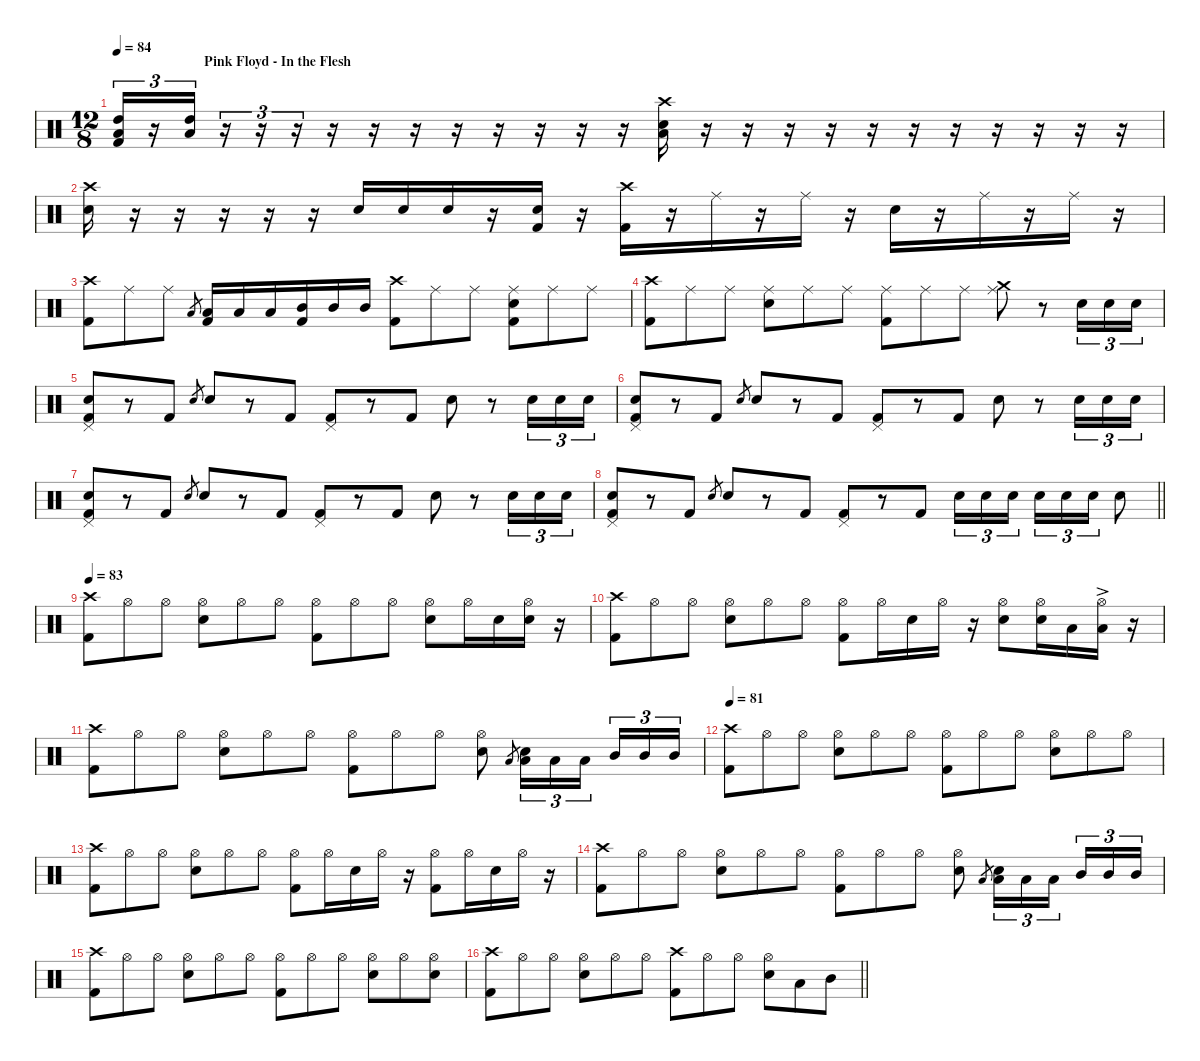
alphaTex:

\defaultSystemsLayout 4
\hideDynamics
\bracketExtendMode nobrackets
\singleTrackTrackNamePolicy hidden
\multiTrackTrackNamePolicy hidden
\firstSystemTrackNameMode fullname
\otherSystemsTrackNameOrientation horizontal
\track ("DRUMS" "drm.") {instrument percussion}
\staff {score}
\articulation defaults
\ts (12 8)
\beaming (8 3 3 3 3)
\section ("" "                          Pink Floyd - In the Flesh")
\tempo 84
\clef neutral
\ks c
("High Tom (hit)" "Low Tom (hit)" "Kick (hit) 2").16{tu (3 2) dy f beam Up} r.16{tu (3 2) beam Up} ("High Tom (hit)" "Low Tom (hit)").16{tu (3 2) beam Up} r.16{tu (3 2) beam Up} r.16{tu (3 2) beam Up} r.16{tu (3 2) beam Up} r.16{beam Up} r.16{beam Up} r.16{beam Up} r.16{beam Up} r.16{beam Up} r.16{beam Up} r.16{beam Up} r.16{beam Up} ("Crash high (hit)" "Low Tom (hit)" "Snare (hit) 2").16{beam Down} r.16{beam Down} r.16{beam Down} r.16{beam Down} r.16{beam Down} r.16{beam Down} r.16{beam Down} r.16{beam Down} r.16{beam Down} r.16{beam Down} r.16{beam Down} r.16{beam Down} |
("Crash high (hit)" "Snare (hit) 2").16{beam Down} r.16{beam Down} r.16{beam Down} r.16{beam Down} r.16{beam Down} r.16{beam Down} "Snare (hit) 2".16{beam Up} "Snare (hit) 2".16{beam Up} "Snare (hit) 2".16{beam Up} r.16{beam Up} ("Snare (hit) 2" "Kick (hit) 2").16{beam Up} r.16{beam Up} ("Crash high (hit)" "Kick (hit) 2").16{beam Down} r.16{beam Down} "Ride (middle)".16{beam Down} r.16{beam Down} "Ride (middle)".16{beam Down} r.16{beam Down} "Snare (hit) 2".16{beam Down} r.16{beam Down} "Ride (middle)".16{beam Down} r.16{beam Down} "Ride (middle)".16{beam Down} r.16{beam Down} |
("Crash high (hit)" "Kick (hit) 2").8{beam Down} "Ride (middle)".8{beam Down} "Ride (middle)".8{beam Down} "Low Tom (hit)".8{gr dy mf beam Up} ("Low Tom (hit)" "Kick (hit) 2").16{dy f beam Up} "Low Tom (hit)".16{beam Up} "Low Tom (hit)".16{beam Up} ("Mid Tom (hit)" "Kick (hit) 2").16{beam Up} "Mid Tom (hit)".16{beam Up} "Mid Tom (hit)".16{beam Up} ("Crash high (hit)" "Kick (hit) 2").8{beam Down} "Ride (middle)".8{beam Down} "Ride (middle)".8{beam Down} ("Ride (middle)" "Snare (hit) 2" "Kick (hit) 2").8{beam Down} "Ride (middle)".8{beam Down} "Ride (middle)".8{beam Down} |
("Crash high (hit)" "Kick (hit) 2").8{beam Down} "Ride (middle)".8{beam Down} "Ride (middle)".8{beam Down} ("Snare (hit) 2" "Ride (middle)").8{beam Down} "Ride (middle)".8{beam Down} "Ride (middle)".8{beam Down} ("Ride (middle)" "Kick (hit) 2").8{beam Down} "Ride (middle)".8{beam Down} "Ride (middle)".8{beam Down} ("Crash medium (hit)" "Ride (middle)").8{beam Down} r.8{beam Down} "Snare (hit) 2".16{tu (3 2) dy mf beam Down} "Snare (hit) 2".16{tu (3 2) beam Down} "Snare (hit) 2".16{tu (3 2) beam Down} |
("Pedal Hi-Hat (hit)" "Snare (hit) 2" "Kick (hit) 2").8{beam Up} r.8{beam Up} "Kick (hit) 2".8{dy f beam Up} "Electric Snare (hit)".8{gr dy mf beam Up} "Snare (hit) 2".8{dy fff beam Up} r.8{beam Up} "Kick (hit) 2".8{dy f beam Up} ("Pedal Hi-Hat (hit)" "Kick (hit) 2").8{dy mf beam Up} r.8{beam Up} "Kick (hit) 2".8{dy f beam Up} "Snare (hit) 2".8{dy fff beam Down} r.8{beam Down} "Snare (hit) 2".16{tu (3 2) dy mf beam Down} "Snare (hit) 2".16{tu (3 2) beam Down} "Snare (hit) 2".16{tu (3 2) beam Down} |
("Pedal Hi-Hat (hit)" "Snare (hit) 2" "Kick (hit) 2").8{beam Up} r.8{beam Up} "Kick (hit) 2".8{dy f beam Up} "Electric Snare (hit)".8{gr dy mf beam Up} "Snare (hit) 2".8{dy fff beam Up} r.8{beam Up} "Kick (hit) 2".8{dy mf beam Up} ("Pedal Hi-Hat (hit)" "Kick (hit) 2").8{beam Up} r.8{beam Up} "Kick (hit) 2".8{dy f beam Up} "Snare (hit) 2".8{dy fff beam Down} r.8{beam Down} "Snare (hit) 2".16{tu (3 2) dy mf beam Down} "Snare (hit) 2".16{tu (3 2) beam Down} "Snare (hit) 2".16{tu (3 2) beam Down} |
("Pedal Hi-Hat (hit)" "Snare (hit) 2" "Kick (hit) 2").8{beam Up} r.8{beam Up} "Kick (hit) 2".8{dy f beam Up} "Electric Snare (hit)".8{gr dy mf beam Up} "Snare (hit) 2".8{dy fff beam Up} r.8{beam Up} "Kick (hit) 2".8{dy f beam Up} ("Pedal Hi-Hat (hit)" "Kick (hit) 2").8{dy mf beam Up} r.8{beam Up} "Kick (hit) 2".8{dy f beam Up} "Snare (hit) 2".8{dy fff beam Down} r.8{beam Down} "Snare (hit) 2".16{tu (3 2) dy mf beam Down} "Snare (hit) 2".16{tu (3 2) beam Down} "Snare (hit) 2".16{tu (3 2) beam Down} |
\barLineRight lightlight
("Pedal Hi-Hat (hit)" "Snare (hit) 2" "Kick (hit) 2").8{beam Up} r.8{beam Up} "Kick (hit) 2".8{dy f beam Up} "Electric Snare (hit)".8{gr dy mf beam Up} "Snare (hit) 2".8{dy fff beam Up} r.8{beam Up} "Kick (hit) 2".8{dy f beam Up} ("Pedal Hi-Hat (hit)" "Kick (hit) 2").8{dy mf beam Up} r.8{beam Up} "Kick (hit) 2".8{dy f beam Up} "Snare (hit) 2".16{tu (3 2) beam Down} "Snare (hit) 2".16{tu (3 2) dy mf beam Down} "Snare (hit) 2".16{tu (3 2) beam Down} "Snare (hit) 2".16{tu (3 2) dy f beam Down} "Snare (hit) 2".16{tu (3 2) dy mf beam Down} "Snare (hit) 2".16{tu (3 2) beam Down} "Snare (hit) 2".8{dy fff beam Down} |
\tempo 83
("Crash high (hit)" "Kick (hit) 2").8{dy f beam Down} "Hi-Hat (open)".8{dy mf beam Down} "Hi-Hat (open)".8{beam Down} ("Snare (hit) 2" "Hi-Hat (open)").8{dy ff beam Down} "Hi-Hat (open)".8{dy mf beam Down} "Hi-Hat (open)".8{beam Down} ("Hi-Hat (open)" "Kick (hit) 2").8{beam Down} "Hi-Hat (open)".8{beam Down} "Hi-Hat (open)".8{beam Down} ("Snare (hit) 2" "Hi-Hat (open)").8{dy ff beam Down} "Hi-Hat (open)".16{dy mf beam Down} "Snare (hit) 2".16{dy f beam Down} ("Hi-Hat (open)" "Snare (hit) 2").16{dy mf beam Down} r.16{beam Down} |
("Crash high (hit)" "Kick (hit) 2").8{dy f beam Down} "Hi-Hat (open)".8{dy mf beam Down} "Hi-Hat (open)".8{beam Down} ("Snare (hit) 2" "Hi-Hat (open)").8{dy ff beam Down} "Hi-Hat (open)".8{dy mf beam Down} "Hi-Hat (open)".8{beam Down} ("Hi-Hat (open)" "Kick (hit) 2").8{beam Down} "Hi-Hat (open)".16{beam Down} "Snare (hit) 2".16{dy ff beam Down} "Hi-Hat (open)".16{dy mf beam Down} r.16{beam Down} ("Snare (hit) 2" "Hi-Hat (open)").8{dy ff beam Down} ("Hi-Hat (open)" "Snare (hit) 2").16{dy mf beam Down} "Low Tom (hit)".16{dy ff beam Down} ("Hi-Hat (open)" "Low Tom (hit)"{ac}).16{dy mf beam Down} r.16{beam Down} |
("Crash high (hit)" "Kick (hit) 2").8{dy f beam Down} "Hi-Hat (open)".8{dy mf beam Down} "Hi-Hat (open)".8{beam Down} ("Snare (hit) 2" "Hi-Hat (open)").8{dy ff beam Down} "Hi-Hat (open)".8{dy mf beam Down} "Hi-Hat (open)".8{beam Down} ("Hi-Hat (open)" "Kick (hit) 2").8{beam Down} "Hi-Hat (open)".8{beam Down} "Hi-Hat (open)".8{beam Down} ("Hi-Hat (open)" "Snare (hit) 2").8{dy f beam Down} "Low Tom (hit)".8{gr beam Up} ("Snare (hit) 2" "Low Tom (hit)").16{tu (3 2) dy ff beam Down} "Low Tom (hit)".16{tu (3 2) dy f beam Down} "Low Tom (hit)".16{tu (3 2) beam Down} "Mid Tom (hit)".16{tu (3 2) dy ff beam Up} "Mid Tom (hit)".16{tu (3 2) dy f beam Up} "Mid Tom (hit)".16{tu (3 2) beam Up} |
\tempo 81
("Crash high (hit)" "Kick (hit) 2").8{beam Down} "Hi-Hat (open)".8{dy mf beam Down} "Hi-Hat (open)".8{beam Down} ("Snare (hit) 2" "Hi-Hat (open)").8{dy ff beam Down} "Hi-Hat (open)".8{dy mf beam Down} "Hi-Hat (open)".8{beam Down} ("Hi-Hat (open)" "Kick (hit) 2").8{beam Down} "Hi-Hat (open)".8{beam Down} "Hi-Hat (open)".8{beam Down} ("Snare (hit) 2" "Hi-Hat (open)").8{dy ff beam Down} "Hi-Hat (open)".8{dy mf beam Down} "Hi-Hat (open)".8{beam Down} |
("Crash high (hit)" "Kick (hit) 2").8{dy f beam Down} "Hi-Hat (open)".8{dy mf beam Down} "Hi-Hat (open)".8{beam Down} ("Snare (hit) 2" "Hi-Hat (open)").8{dy ff beam Down} "Hi-Hat (open)".8{dy mf beam Down} "Hi-Hat (open)".8{beam Down} ("Hi-Hat (open)" "Kick (hit) 2").8{beam Down} "Hi-Hat (open)".16{beam Down} "Snare (hit) 2".16{dy ff beam Down} "Hi-Hat (open)".16{dy mf beam Down} r.16{beam Down} ("Hi-Hat (open)" "Kick (hit) 2").8{beam Down} "Hi-Hat (open)".16{beam Down} "Snare (hit) 2".16{dy ff beam Down} "Hi-Hat (open)".16{dy mf beam Down} r.16{beam Down} |
("Crash high (hit)" "Kick (hit) 2").8{dy f beam Down} "Hi-Hat (open)".8{dy mf beam Down} "Hi-Hat (open)".8{beam Down} ("Snare (hit) 2" "Hi-Hat (open)").8{dy ff beam Down} "Hi-Hat (open)".8{dy mf beam Down} "Hi-Hat (open)".8{beam Down} ("Hi-Hat (open)" "Kick (hit) 2").8{beam Down} "Hi-Hat (open)".8{beam Down} "Hi-Hat (open)".8{beam Down} ("Hi-Hat (open)" "Snare (hit) 2").8{dy f beam Down} "Low Tom (hit)".8{gr beam Up} ("Snare (hit) 2" "Low Tom (hit)").16{tu (3 2) dy ff beam Down} "Low Tom (hit)".16{tu (3 2) dy f beam Down} "Low Tom (hit)".16{tu (3 2) beam Down} "Mid Tom (hit)".16{tu (3 2) dy ff beam Up} "Mid Tom (hit)".16{tu (3 2) dy f beam Up} "Mid Tom (hit)".16{tu (3 2) beam Up} |
("Crash high (hit)" "Kick (hit) 2").8{beam Down} "Hi-Hat (open)".8{dy mf beam Down} "Hi-Hat (open)".8{beam Down} ("Snare (hit) 2" "Hi-Hat (open)").8{dy ff beam Down} "Hi-Hat (open)".8{dy mf beam Down} "Hi-Hat (open)".8{beam Down} ("Hi-Hat (open)" "Kick (hit) 2").8{beam Down} "Hi-Hat (open)".8{beam Down} "Hi-Hat (open)".8{beam Down} ("Snare (hit) 2" "Hi-Hat (open)").8{dy ff beam Down} "Hi-Hat (open)".8{dy mf beam Down} ("Snare (hit) 2" "Hi-Hat (open)").8{dy f beam Down} |
\barLineRight lightlight
("Crash high (hit)" "Kick (hit) 2").8{beam Down} "Hi-Hat (open)".8{dy mf beam Down} "Hi-Hat (open)".8{beam Down} ("Snare (hit) 2" "Hi-Hat (open)").8{dy ff beam Down} "Hi-Hat (open)".8{dy mf beam Down} "Hi-Hat (open)".8{beam Down} ("Crash high (hit)" "Kick (hit) 2").8{dy ff beam Down} "Hi-Hat (open)".8{dy mf beam Down} "Hi-Hat (open)".8{beam Down} ("Snare (hit) 2" "Hi-Hat (open)").8{dy ff beam Down} "Low Tom (hit)".8{dy mf beam Down} "Mid Tom (hit)".8{beam Down}
